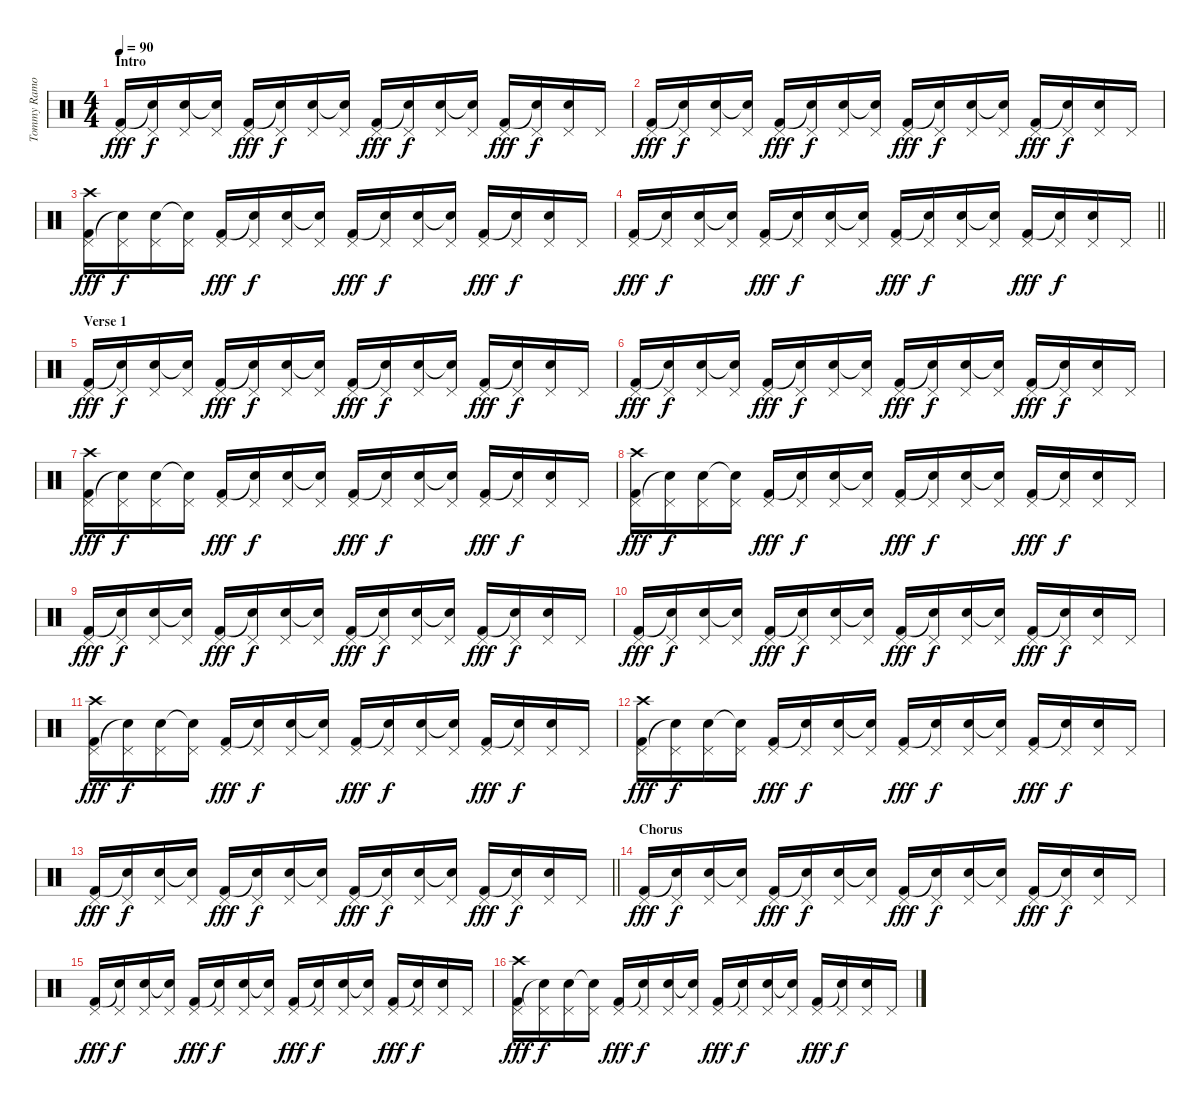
\track ("Tommy Ramone - Drums" "Tommy Ramo") {instrument percussion}
\staff {score}
\articulation defaults
\ts (4 4)
\section ("" "Intro")
\tempo 90
\clef neutral
\ks c
("Pedal Hi-Hat (hit)" "Kick (hit) 2").16{dy fff} ("Pedal Hi-Hat (hit)" "Snare (hit)"{t}).16{dy f} ("Pedal Hi-Hat (hit)" "Electric Snare (hit)").16 ("Pedal Hi-Hat (hit)" "Snare (hit)"{t}).16 ("Pedal Hi-Hat (hit)" "Kick (hit) 2").16{dy fff} ("Pedal Hi-Hat (hit)" "Snare (hit)"{t}).16{dy f} ("Pedal Hi-Hat (hit)" "Electric Snare (hit)").16 ("Pedal Hi-Hat (hit)" "Snare (hit)"{t}).16 ("Pedal Hi-Hat (hit)" "Kick (hit) 2").16{dy fff} ("Pedal Hi-Hat (hit)" "Snare (hit)"{t}).16{dy f} ("Pedal Hi-Hat (hit)" "Electric Snare (hit)").16 ("Pedal Hi-Hat (hit)" "Snare (hit)"{t}).16 ("Pedal Hi-Hat (hit)" "Kick (hit) 2").16{dy fff} ("Pedal Hi-Hat (hit)" "Snare (hit)"{t}).16{dy f} ("Pedal Hi-Hat (hit)" "Electric Snare (hit)").16 "Pedal Hi-Hat (hit)".16 |
("Pedal Hi-Hat (hit)" "Kick (hit) 2").16{dy fff} ("Pedal Hi-Hat (hit)" "Snare (hit)"{t}).16{dy f} ("Pedal Hi-Hat (hit)" "Electric Snare (hit)").16 ("Pedal Hi-Hat (hit)" "Snare (hit)"{t}).16 ("Pedal Hi-Hat (hit)" "Kick (hit) 2").16{dy fff} ("Pedal Hi-Hat (hit)" "Snare (hit)"{t}).16{dy f} ("Pedal Hi-Hat (hit)" "Electric Snare (hit)").16 ("Pedal Hi-Hat (hit)" "Snare (hit)"{t}).16 ("Pedal Hi-Hat (hit)" "Kick (hit) 2").16{dy fff} ("Pedal Hi-Hat (hit)" "Snare (hit)"{t}).16{dy f} ("Pedal Hi-Hat (hit)" "Electric Snare (hit)").16 ("Pedal Hi-Hat (hit)" "Snare (hit)"{t}).16 ("Pedal Hi-Hat (hit)" "Kick (hit) 2").16{dy fff} ("Pedal Hi-Hat (hit)" "Snare (hit)"{t}).16{dy f} ("Pedal Hi-Hat (hit)" "Electric Snare (hit)").16 "Pedal Hi-Hat (hit)".16 |
("Crash high (hit)" "Pedal Hi-Hat (hit)" "Kick (hit) 2").16{dy fff} ("Pedal Hi-Hat (hit)" "Snare (hit)"{t}).16{dy f} ("Pedal Hi-Hat (hit)" "Electric Snare (hit)").16 ("Pedal Hi-Hat (hit)" "Snare (hit)"{t}).16 ("Pedal Hi-Hat (hit)" "Kick (hit) 2").16{dy fff} ("Pedal Hi-Hat (hit)" "Snare (hit)"{t}).16{dy f} ("Pedal Hi-Hat (hit)" "Electric Snare (hit)").16 ("Pedal Hi-Hat (hit)" "Snare (hit)"{t}).16 ("Pedal Hi-Hat (hit)" "Kick (hit) 2").16{dy fff} ("Pedal Hi-Hat (hit)" "Snare (hit)"{t}).16{dy f} ("Pedal Hi-Hat (hit)" "Electric Snare (hit)").16 ("Pedal Hi-Hat (hit)" "Snare (hit)"{t}).16 ("Pedal Hi-Hat (hit)" "Kick (hit) 2").16{dy fff} ("Pedal Hi-Hat (hit)" "Snare (hit)"{t}).16{dy f} ("Pedal Hi-Hat (hit)" "Electric Snare (hit)").16 "Pedal Hi-Hat (hit)".16 |
\barLineRight lightlight
("Pedal Hi-Hat (hit)" "Kick (hit) 2").16{dy fff} ("Pedal Hi-Hat (hit)" "Snare (hit)"{t}).16{dy f} ("Pedal Hi-Hat (hit)" "Electric Snare (hit)").16 ("Pedal Hi-Hat (hit)" "Snare (hit)"{t}).16 ("Pedal Hi-Hat (hit)" "Kick (hit) 2").16{dy fff} ("Pedal Hi-Hat (hit)" "Snare (hit)"{t}).16{dy f} ("Pedal Hi-Hat (hit)" "Electric Snare (hit)").16 ("Pedal Hi-Hat (hit)" "Snare (hit)"{t}).16 ("Pedal Hi-Hat (hit)" "Kick (hit) 2").16{dy fff} ("Pedal Hi-Hat (hit)" "Snare (hit)"{t}).16{dy f} ("Pedal Hi-Hat (hit)" "Electric Snare (hit)").16 ("Pedal Hi-Hat (hit)" "Snare (hit)"{t}).16 ("Pedal Hi-Hat (hit)" "Kick (hit) 2").16{dy fff} ("Pedal Hi-Hat (hit)" "Snare (hit)"{t}).16{dy f} ("Pedal Hi-Hat (hit)" "Electric Snare (hit)").16 "Pedal Hi-Hat (hit)".16 |
\section ("" "Verse 1")
("Pedal Hi-Hat (hit)" "Kick (hit) 2").16{dy fff} ("Pedal Hi-Hat (hit)" "Snare (hit)"{t}).16{dy f} ("Pedal Hi-Hat (hit)" "Electric Snare (hit)").16 ("Pedal Hi-Hat (hit)" "Snare (hit)"{t}).16 ("Pedal Hi-Hat (hit)" "Kick (hit) 2").16{dy fff} ("Pedal Hi-Hat (hit)" "Snare (hit)"{t}).16{dy f} ("Pedal Hi-Hat (hit)" "Electric Snare (hit)").16 ("Pedal Hi-Hat (hit)" "Snare (hit)"{t}).16 ("Pedal Hi-Hat (hit)" "Kick (hit) 2").16{dy fff} ("Pedal Hi-Hat (hit)" "Snare (hit)"{t}).16{dy f} ("Pedal Hi-Hat (hit)" "Electric Snare (hit)").16 ("Pedal Hi-Hat (hit)" "Snare (hit)"{t}).16 ("Pedal Hi-Hat (hit)" "Kick (hit) 2").16{dy fff} ("Pedal Hi-Hat (hit)" "Snare (hit)"{t}).16{dy f} ("Pedal Hi-Hat (hit)" "Electric Snare (hit)").16 "Pedal Hi-Hat (hit)".16 |
("Pedal Hi-Hat (hit)" "Kick (hit) 2").16{dy fff} ("Pedal Hi-Hat (hit)" "Snare (hit)"{t}).16{dy f} ("Pedal Hi-Hat (hit)" "Electric Snare (hit)").16 ("Pedal Hi-Hat (hit)" "Snare (hit)"{t}).16 ("Pedal Hi-Hat (hit)" "Kick (hit) 2").16{dy fff} ("Pedal Hi-Hat (hit)" "Snare (hit)"{t}).16{dy f} ("Pedal Hi-Hat (hit)" "Electric Snare (hit)").16 ("Pedal Hi-Hat (hit)" "Snare (hit)"{t}).16 ("Pedal Hi-Hat (hit)" "Kick (hit) 2").16{dy fff} ("Pedal Hi-Hat (hit)" "Snare (hit)"{t}).16{dy f} ("Pedal Hi-Hat (hit)" "Electric Snare (hit)").16 ("Pedal Hi-Hat (hit)" "Snare (hit)"{t}).16 ("Pedal Hi-Hat (hit)" "Kick (hit) 2").16{dy fff} ("Pedal Hi-Hat (hit)" "Snare (hit)"{t}).16{dy f} ("Pedal Hi-Hat (hit)" "Electric Snare (hit)").16 "Pedal Hi-Hat (hit)".16 |
("Crash high (hit)" "Pedal Hi-Hat (hit)" "Kick (hit) 2").16{dy fff} ("Pedal Hi-Hat (hit)" "Snare (hit)"{t}).16{dy f} ("Pedal Hi-Hat (hit)" "Electric Snare (hit)").16 ("Pedal Hi-Hat (hit)" "Snare (hit)"{t}).16 ("Pedal Hi-Hat (hit)" "Kick (hit) 2").16{dy fff} ("Pedal Hi-Hat (hit)" "Snare (hit)"{t}).16{dy f} ("Pedal Hi-Hat (hit)" "Electric Snare (hit)").16 ("Pedal Hi-Hat (hit)" "Snare (hit)"{t}).16 ("Pedal Hi-Hat (hit)" "Kick (hit) 2").16{dy fff} ("Pedal Hi-Hat (hit)" "Snare (hit)"{t}).16{dy f} ("Pedal Hi-Hat (hit)" "Electric Snare (hit)").16 ("Pedal Hi-Hat (hit)" "Snare (hit)"{t}).16 ("Pedal Hi-Hat (hit)" "Kick (hit) 2").16{dy fff} ("Pedal Hi-Hat (hit)" "Snare (hit)"{t}).16{dy f} ("Pedal Hi-Hat (hit)" "Electric Snare (hit)").16 "Pedal Hi-Hat (hit)".16 |
("Crash high (hit)" "Pedal Hi-Hat (hit)" "Kick (hit) 2").16{dy fff} ("Pedal Hi-Hat (hit)" "Snare (hit)"{t}).16{dy f} ("Pedal Hi-Hat (hit)" "Electric Snare (hit)").16 ("Pedal Hi-Hat (hit)" "Snare (hit)"{t}).16 ("Pedal Hi-Hat (hit)" "Kick (hit) 2").16{dy fff} ("Pedal Hi-Hat (hit)" "Snare (hit)"{t}).16{dy f} ("Pedal Hi-Hat (hit)" "Electric Snare (hit)").16 ("Pedal Hi-Hat (hit)" "Snare (hit)"{t}).16 ("Pedal Hi-Hat (hit)" "Kick (hit) 2").16{dy fff} ("Pedal Hi-Hat (hit)" "Snare (hit)"{t}).16{dy f} ("Pedal Hi-Hat (hit)" "Electric Snare (hit)").16 ("Pedal Hi-Hat (hit)" "Snare (hit)"{t}).16 ("Pedal Hi-Hat (hit)" "Kick (hit) 2").16{dy fff} ("Pedal Hi-Hat (hit)" "Snare (hit)"{t}).16{dy f} ("Pedal Hi-Hat (hit)" "Electric Snare (hit)").16 "Pedal Hi-Hat (hit)".16 |
("Pedal Hi-Hat (hit)" "Kick (hit) 2").16{dy fff} ("Pedal Hi-Hat (hit)" "Snare (hit)"{t}).16{dy f} ("Pedal Hi-Hat (hit)" "Electric Snare (hit)").16 ("Pedal Hi-Hat (hit)" "Snare (hit)"{t}).16 ("Pedal Hi-Hat (hit)" "Kick (hit) 2").16{dy fff} ("Pedal Hi-Hat (hit)" "Snare (hit)"{t}).16{dy f} ("Pedal Hi-Hat (hit)" "Electric Snare (hit)").16 ("Pedal Hi-Hat (hit)" "Snare (hit)"{t}).16 ("Pedal Hi-Hat (hit)" "Kick (hit) 2").16{dy fff} ("Pedal Hi-Hat (hit)" "Snare (hit)"{t}).16{dy f} ("Pedal Hi-Hat (hit)" "Electric Snare (hit)").16 ("Pedal Hi-Hat (hit)" "Snare (hit)"{t}).16 ("Pedal Hi-Hat (hit)" "Kick (hit) 2").16{dy fff} ("Pedal Hi-Hat (hit)" "Snare (hit)"{t}).16{dy f} ("Pedal Hi-Hat (hit)" "Electric Snare (hit)").16 "Pedal Hi-Hat (hit)".16 |
("Pedal Hi-Hat (hit)" "Kick (hit) 2").16{dy fff} ("Pedal Hi-Hat (hit)" "Snare (hit)"{t}).16{dy f} ("Pedal Hi-Hat (hit)" "Electric Snare (hit)").16 ("Pedal Hi-Hat (hit)" "Snare (hit)"{t}).16 ("Pedal Hi-Hat (hit)" "Kick (hit) 2").16{dy fff} ("Pedal Hi-Hat (hit)" "Snare (hit)"{t}).16{dy f} ("Pedal Hi-Hat (hit)" "Electric Snare (hit)").16 ("Pedal Hi-Hat (hit)" "Snare (hit)"{t}).16 ("Pedal Hi-Hat (hit)" "Kick (hit) 2").16{dy fff} ("Pedal Hi-Hat (hit)" "Snare (hit)"{t}).16{dy f} ("Pedal Hi-Hat (hit)" "Electric Snare (hit)").16 ("Pedal Hi-Hat (hit)" "Snare (hit)"{t}).16 ("Pedal Hi-Hat (hit)" "Kick (hit) 2").16{dy fff} ("Pedal Hi-Hat (hit)" "Snare (hit)"{t}).16{dy f} ("Pedal Hi-Hat (hit)" "Electric Snare (hit)").16 "Pedal Hi-Hat (hit)".16 |
("Crash high (hit)" "Pedal Hi-Hat (hit)" "Kick (hit) 2").16{dy fff} ("Pedal Hi-Hat (hit)" "Snare (hit)"{t}).16{dy f} ("Pedal Hi-Hat (hit)" "Electric Snare (hit)").16 ("Pedal Hi-Hat (hit)" "Snare (hit)"{t}).16 ("Pedal Hi-Hat (hit)" "Kick (hit) 2").16{dy fff} ("Pedal Hi-Hat (hit)" "Snare (hit)"{t}).16{dy f} ("Pedal Hi-Hat (hit)" "Electric Snare (hit)").16 ("Pedal Hi-Hat (hit)" "Snare (hit)"{t}).16 ("Pedal Hi-Hat (hit)" "Kick (hit) 2").16{dy fff} ("Pedal Hi-Hat (hit)" "Snare (hit)"{t}).16{dy f} ("Pedal Hi-Hat (hit)" "Electric Snare (hit)").16 ("Pedal Hi-Hat (hit)" "Snare (hit)"{t}).16 ("Pedal Hi-Hat (hit)" "Kick (hit) 2").16{dy fff} ("Pedal Hi-Hat (hit)" "Snare (hit)"{t}).16{dy f} ("Pedal Hi-Hat (hit)" "Electric Snare (hit)").16 "Pedal Hi-Hat (hit)".16 |
("Crash high (hit)" "Pedal Hi-Hat (hit)" "Kick (hit) 2").16{dy fff} ("Pedal Hi-Hat (hit)" "Snare (hit)"{t}).16{dy f} ("Pedal Hi-Hat (hit)" "Electric Snare (hit)").16 ("Pedal Hi-Hat (hit)" "Snare (hit)"{t}).16 ("Pedal Hi-Hat (hit)" "Kick (hit) 2").16{dy fff} ("Pedal Hi-Hat (hit)" "Snare (hit)"{t}).16{dy f} ("Pedal Hi-Hat (hit)" "Electric Snare (hit)").16 ("Pedal Hi-Hat (hit)" "Snare (hit)"{t}).16 ("Pedal Hi-Hat (hit)" "Kick (hit) 2").16{dy fff} ("Pedal Hi-Hat (hit)" "Snare (hit)"{t}).16{dy f} ("Pedal Hi-Hat (hit)" "Electric Snare (hit)").16 ("Pedal Hi-Hat (hit)" "Snare (hit)"{t}).16 ("Pedal Hi-Hat (hit)" "Kick (hit) 2").16{dy fff} ("Pedal Hi-Hat (hit)" "Snare (hit)"{t}).16{dy f} ("Pedal Hi-Hat (hit)" "Electric Snare (hit)").16 "Pedal Hi-Hat (hit)".16 |
\barLineRight lightlight
("Pedal Hi-Hat (hit)" "Kick (hit) 2").16{dy fff} ("Pedal Hi-Hat (hit)" "Snare (hit)"{t}).16{dy f} ("Pedal Hi-Hat (hit)" "Electric Snare (hit)").16 ("Pedal Hi-Hat (hit)" "Snare (hit)"{t}).16 ("Pedal Hi-Hat (hit)" "Kick (hit) 2").16{dy fff} ("Pedal Hi-Hat (hit)" "Snare (hit)"{t}).16{dy f} ("Pedal Hi-Hat (hit)" "Electric Snare (hit)").16 ("Pedal Hi-Hat (hit)" "Snare (hit)"{t}).16 ("Pedal Hi-Hat (hit)" "Kick (hit) 2").16{dy fff} ("Pedal Hi-Hat (hit)" "Snare (hit)"{t}).16{dy f} ("Pedal Hi-Hat (hit)" "Electric Snare (hit)").16 ("Pedal Hi-Hat (hit)" "Snare (hit)"{t}).16 ("Pedal Hi-Hat (hit)" "Kick (hit) 2").16{dy fff} ("Pedal Hi-Hat (hit)" "Snare (hit)"{t}).16{dy f} ("Pedal Hi-Hat (hit)" "Electric Snare (hit)").16 "Pedal Hi-Hat (hit)".16 |
\section ("" "Chorus")
("Pedal Hi-Hat (hit)" "Kick (hit) 2").16{dy fff} ("Pedal Hi-Hat (hit)" "Snare (hit)"{t}).16{dy f} ("Pedal Hi-Hat (hit)" "Electric Snare (hit)").16 ("Pedal Hi-Hat (hit)" "Snare (hit)"{t}).16 ("Pedal Hi-Hat (hit)" "Kick (hit) 2").16{dy fff} ("Pedal Hi-Hat (hit)" "Snare (hit)"{t}).16{dy f} ("Pedal Hi-Hat (hit)" "Electric Snare (hit)").16 ("Pedal Hi-Hat (hit)" "Snare (hit)"{t}).16 ("Pedal Hi-Hat (hit)" "Kick (hit) 2").16{dy fff} ("Pedal Hi-Hat (hit)" "Snare (hit)"{t}).16{dy f} ("Pedal Hi-Hat (hit)" "Electric Snare (hit)").16 ("Pedal Hi-Hat (hit)" "Snare (hit)"{t}).16 ("Pedal Hi-Hat (hit)" "Kick (hit) 2").16{dy fff} ("Pedal Hi-Hat (hit)" "Snare (hit)"{t}).16{dy f} ("Pedal Hi-Hat (hit)" "Electric Snare (hit)").16 "Pedal Hi-Hat (hit)".16 |
("Pedal Hi-Hat (hit)" "Kick (hit) 2").16{dy fff} ("Pedal Hi-Hat (hit)" "Snare (hit)"{t}).16{dy f} ("Pedal Hi-Hat (hit)" "Electric Snare (hit)").16 ("Pedal Hi-Hat (hit)" "Snare (hit)"{t}).16 ("Pedal Hi-Hat (hit)" "Kick (hit) 2").16{dy fff} ("Pedal Hi-Hat (hit)" "Snare (hit)"{t}).16{dy f} ("Pedal Hi-Hat (hit)" "Electric Snare (hit)").16 ("Pedal Hi-Hat (hit)" "Snare (hit)"{t}).16 ("Pedal Hi-Hat (hit)" "Kick (hit) 2").16{dy fff} ("Pedal Hi-Hat (hit)" "Snare (hit)"{t}).16{dy f} ("Pedal Hi-Hat (hit)" "Electric Snare (hit)").16 ("Pedal Hi-Hat (hit)" "Snare (hit)"{t}).16 ("Pedal Hi-Hat (hit)" "Kick (hit) 2").16{dy fff} ("Pedal Hi-Hat (hit)" "Snare (hit)"{t}).16{dy f} ("Pedal Hi-Hat (hit)" "Electric Snare (hit)").16 "Pedal Hi-Hat (hit)".16 |
("Crash high (hit)" "Pedal Hi-Hat (hit)" "Kick (hit) 2").16{dy fff} ("Pedal Hi-Hat (hit)" "Snare (hit)"{t}).16{dy f} ("Pedal Hi-Hat (hit)" "Electric Snare (hit)").16 ("Pedal Hi-Hat (hit)" "Snare (hit)"{t}).16 ("Pedal Hi-Hat (hit)" "Kick (hit) 2").16{dy fff} ("Pedal Hi-Hat (hit)" "Snare (hit)"{t}).16{dy f} ("Pedal Hi-Hat (hit)" "Electric Snare (hit)").16 ("Pedal Hi-Hat (hit)" "Snare (hit)"{t}).16 ("Pedal Hi-Hat (hit)" "Kick (hit) 2").16{dy fff} ("Pedal Hi-Hat (hit)" "Snare (hit)"{t}).16{dy f} ("Pedal Hi-Hat (hit)" "Electric Snare (hit)").16 ("Pedal Hi-Hat (hit)" "Snare (hit)"{t}).16 ("Pedal Hi-Hat (hit)" "Kick (hit) 2").16{dy fff} ("Pedal Hi-Hat (hit)" "Snare (hit)"{t}).16{dy f} ("Pedal Hi-Hat (hit)" "Electric Snare (hit)").16 "Pedal Hi-Hat (hit)".16
